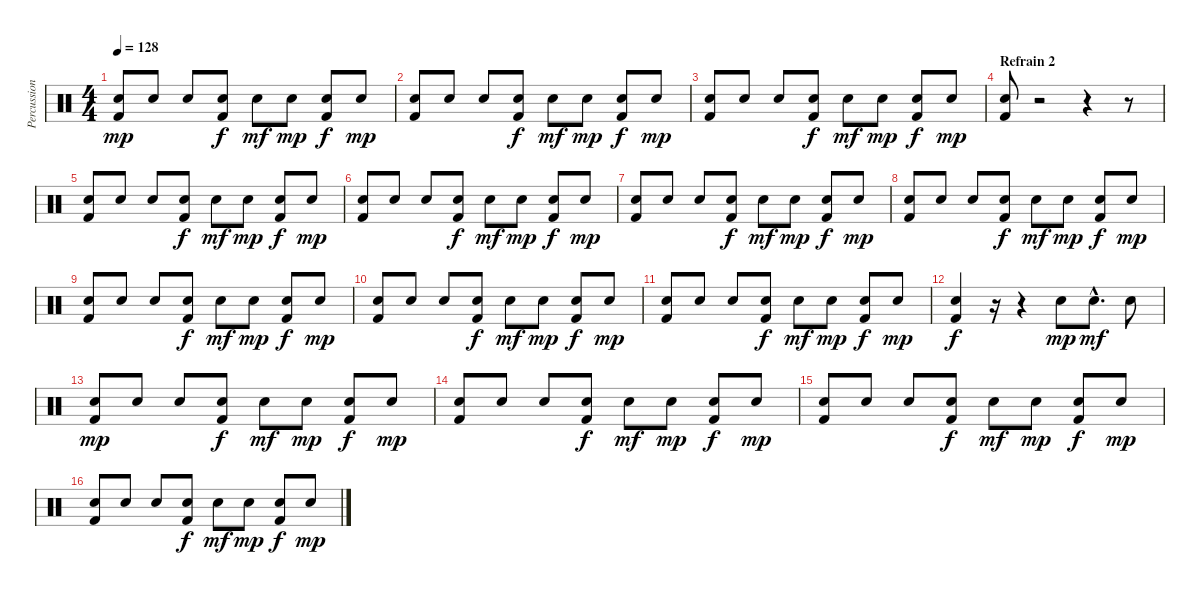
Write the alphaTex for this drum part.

\track ("Percussions" "Percussion") {instrument percussion}
\staff {score}
\articulation defaults
\ts (4 4)
\tempo 128
\clef neutral
\ks c
("Electric Snare (hit)" "Kick (hit) 2").8{dy mp} "Electric Snare (hit)".8 "Electric Snare (hit)".8 ("Electric Snare (hit)" "Kick (hit) 2").8{dy f} "Electric Snare (hit)".8{dy mf} "Electric Snare (hit)".8{dy mp} ("Electric Snare (hit)" "Kick (hit) 2").8{dy f} "Electric Snare (hit)".8{dy mp} |
("Electric Snare (hit)" "Kick (hit) 2").8 "Electric Snare (hit)".8 "Electric Snare (hit)".8 ("Electric Snare (hit)" "Kick (hit) 2").8{dy f} "Electric Snare (hit)".8{dy mf} "Electric Snare (hit)".8{dy mp} ("Electric Snare (hit)" "Kick (hit) 2").8{dy f} "Electric Snare (hit)".8{dy mp} |
("Electric Snare (hit)" "Kick (hit) 2").8 "Electric Snare (hit)".8 "Electric Snare (hit)".8 ("Electric Snare (hit)" "Kick (hit) 2").8{dy f} "Electric Snare (hit)".8{dy mf} "Electric Snare (hit)".8{dy mp} ("Electric Snare (hit)" "Kick (hit) 2").8{dy f} "Electric Snare (hit)".8{dy mp} |
\section ("" "Refrain 2")
("Electric Snare (hit)" "Kick (hit) 2").8 r.2 r.4 r.8 |
("Electric Snare (hit)" "Kick (hit) 2").8 "Electric Snare (hit)".8 "Electric Snare (hit)".8 ("Electric Snare (hit)" "Kick (hit) 2").8{dy f} "Electric Snare (hit)".8{dy mf} "Electric Snare (hit)".8{dy mp} ("Electric Snare (hit)" "Kick (hit) 2").8{dy f} "Electric Snare (hit)".8{dy mp} |
("Electric Snare (hit)" "Kick (hit) 2").8 "Electric Snare (hit)".8 "Electric Snare (hit)".8 ("Electric Snare (hit)" "Kick (hit) 2").8{dy f} "Electric Snare (hit)".8{dy mf} "Electric Snare (hit)".8{dy mp} ("Electric Snare (hit)" "Kick (hit) 2").8{dy f} "Electric Snare (hit)".8{dy mp} |
("Electric Snare (hit)" "Kick (hit) 2").8 "Electric Snare (hit)".8 "Electric Snare (hit)".8 ("Electric Snare (hit)" "Kick (hit) 2").8{dy f} "Electric Snare (hit)".8{dy mf} "Electric Snare (hit)".8{dy mp} ("Electric Snare (hit)" "Kick (hit) 2").8{dy f} "Electric Snare (hit)".8{dy mp} |
("Electric Snare (hit)" "Kick (hit) 2").8 "Electric Snare (hit)".8 "Electric Snare (hit)".8 ("Electric Snare (hit)" "Kick (hit) 2").8{dy f} "Electric Snare (hit)".8{dy mf} "Electric Snare (hit)".8{dy mp} ("Electric Snare (hit)" "Kick (hit) 2").8{dy f} "Electric Snare (hit)".8{dy mp} |
("Electric Snare (hit)" "Kick (hit) 2").8 "Electric Snare (hit)".8 "Electric Snare (hit)".8 ("Electric Snare (hit)" "Kick (hit) 2").8{dy f} "Electric Snare (hit)".8{dy mf} "Electric Snare (hit)".8{dy mp} ("Electric Snare (hit)" "Kick (hit) 2").8{dy f} "Electric Snare (hit)".8{dy mp} |
("Electric Snare (hit)" "Kick (hit) 2").8 "Electric Snare (hit)".8 "Electric Snare (hit)".8 ("Electric Snare (hit)" "Kick (hit) 2").8{dy f} "Electric Snare (hit)".8{dy mf} "Electric Snare (hit)".8{dy mp} ("Electric Snare (hit)" "Kick (hit) 2").8{dy f} "Electric Snare (hit)".8{dy mp} |
("Electric Snare (hit)" "Kick (hit) 2").8 "Electric Snare (hit)".8 "Electric Snare (hit)".8 ("Electric Snare (hit)" "Kick (hit) 2").8{dy f} "Electric Snare (hit)".8{dy mf} "Electric Snare (hit)".8{dy mp} ("Electric Snare (hit)" "Kick (hit) 2").8{dy f} "Electric Snare (hit)".8{dy mp} |
("Electric Snare (hit)" "Kick (hit) 2").4{dy f} r.16 r.4 "Electric Snare (hit)".8{dy mp} "Electric Snare (hit)"{hac}.8{d dy mf} "Electric Snare (hit)".8 |
("Electric Snare (hit)" "Kick (hit) 2").8{dy mp} "Electric Snare (hit)".8 "Electric Snare (hit)".8 ("Electric Snare (hit)" "Kick (hit) 2").8{dy f} "Electric Snare (hit)".8{dy mf} "Electric Snare (hit)".8{dy mp} ("Electric Snare (hit)" "Kick (hit) 2").8{dy f} "Electric Snare (hit)".8{dy mp} |
("Electric Snare (hit)" "Kick (hit) 2").8 "Electric Snare (hit)".8 "Electric Snare (hit)".8 ("Electric Snare (hit)" "Kick (hit) 2").8{dy f} "Electric Snare (hit)".8{dy mf} "Electric Snare (hit)".8{dy mp} ("Electric Snare (hit)" "Kick (hit) 2").8{dy f} "Electric Snare (hit)".8{dy mp} |
("Electric Snare (hit)" "Kick (hit) 2").8 "Electric Snare (hit)".8 "Electric Snare (hit)".8 ("Electric Snare (hit)" "Kick (hit) 2").8{dy f} "Electric Snare (hit)".8{dy mf} "Electric Snare (hit)".8{dy mp} ("Electric Snare (hit)" "Kick (hit) 2").8{dy f} "Electric Snare (hit)".8{dy mp} |
("Electric Snare (hit)" "Kick (hit) 2").8 "Electric Snare (hit)".8 "Electric Snare (hit)".8 ("Electric Snare (hit)" "Kick (hit) 2").8{dy f} "Electric Snare (hit)".8{dy mf} "Electric Snare (hit)".8{dy mp} ("Electric Snare (hit)" "Kick (hit) 2").8{dy f} "Electric Snare (hit)".8{dy mp}
